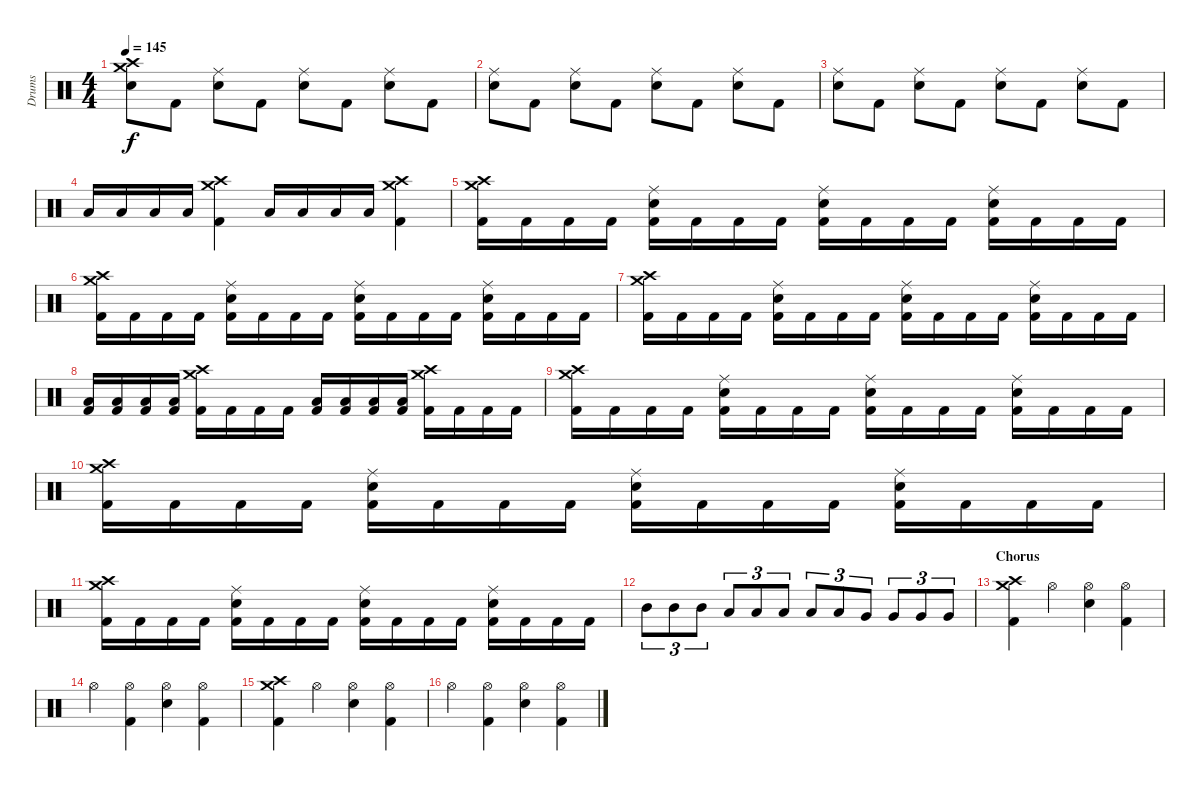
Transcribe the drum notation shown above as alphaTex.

\track ("Drums" "Drums") {instrument percussion}
\staff {score}
\articulation defaults
\ts (4 4)
\tempo 145
\clef neutral
\ks c
("Crash medium (hit)" "Snare (hit) 2" "Crash high (hit)").8{dy f} "Kick (hit) 2".8 ("Ride (middle)" "Snare (hit) 2").8 "Kick (hit) 2".8 ("Ride (middle)" "Snare (hit) 2").8 "Kick (hit) 2".8 ("Ride (middle)" "Snare (hit) 2").8 "Kick (hit) 2".8 |
("Ride (middle)" "Snare (hit) 2").8 "Kick (hit) 2".8 ("Ride (middle)" "Snare (hit) 2").8 "Kick (hit) 2".8 ("Ride (middle)" "Snare (hit) 2").8 "Kick (hit) 2".8 ("Ride (middle)" "Snare (hit) 2").8 "Kick (hit) 2".8 |
("Ride (middle)" "Snare (hit) 2").8 "Kick (hit) 2".8 ("Ride (middle)" "Snare (hit) 2").8 "Kick (hit) 2".8 ("Ride (middle)" "Snare (hit) 2").8 "Kick (hit) 2".8 ("Ride (middle)" "Snare (hit) 2").8 "Kick (hit) 2".8 |
"Low Tom (hit)".16 "Low Tom (hit)".16 "Low Tom (hit)".16 "Low Tom (hit)".16 ("Crash high (hit)" "Crash medium (hit)" "Kick (hit) 2").4 "Low Tom (hit)".16 "Low Tom (hit)".16 "Low Tom (hit)".16 "Low Tom (hit)".16 ("Crash medium (hit)" "Crash high (hit)" "Kick (hit) 2").4 |
("Crash high (hit)" "Crash medium (hit)" "Kick (hit) 2").16 "Kick (hit) 2".16 "Kick (hit) 2".16 "Kick (hit) 2".16 ("Ride (middle)" "Snare (hit) 2" "Kick (hit) 2").16 "Kick (hit) 2".16 "Kick (hit) 2".16 "Kick (hit) 2".16 ("Ride (middle)" "Snare (hit) 2" "Kick (hit) 2").16 "Kick (hit) 2".16 "Kick (hit) 2".16 "Kick (hit) 2".16 ("Ride (middle)" "Snare (hit) 2" "Kick (hit) 2").16 "Kick (hit) 2".16 "Kick (hit) 2".16 "Kick (hit) 2".16 |
("Crash high (hit)" "Crash medium (hit)" "Kick (hit) 2").16 "Kick (hit) 2".16 "Kick (hit) 2".16 "Kick (hit) 2".16 ("Ride (middle)" "Snare (hit) 2" "Kick (hit) 2").16 "Kick (hit) 2".16 "Kick (hit) 2".16 "Kick (hit) 2".16 ("Ride (middle)" "Snare (hit) 2" "Kick (hit) 2").16 "Kick (hit) 2".16 "Kick (hit) 2".16 "Kick (hit) 2".16 ("Ride (middle)" "Snare (hit) 2" "Kick (hit) 2").16 "Kick (hit) 2".16 "Kick (hit) 2".16 "Kick (hit) 2".16 |
("Crash high (hit)" "Crash medium (hit)" "Kick (hit) 2").16 "Kick (hit) 2".16 "Kick (hit) 2".16 "Kick (hit) 2".16 ("Ride (middle)" "Snare (hit) 2" "Kick (hit) 2").16 "Kick (hit) 2".16 "Kick (hit) 2".16 "Kick (hit) 2".16 ("Ride (middle)" "Snare (hit) 2" "Kick (hit) 2").16 "Kick (hit) 2".16 "Kick (hit) 2".16 "Kick (hit) 2".16 ("Ride (middle)" "Snare (hit) 2" "Kick (hit) 2").16 "Kick (hit) 2".16 "Kick (hit) 2".16 "Kick (hit) 2".16 |
("Low Tom (hit)" "Kick (hit) 2").16 ("Low Tom (hit)" "Kick (hit) 2").16 ("Low Tom (hit)" "Kick (hit) 2").16 ("Low Tom (hit)" "Kick (hit) 2").16 ("Crash high (hit)" "Crash medium (hit)" "Kick (hit) 2").16 "Kick (hit) 2".16 "Kick (hit) 2".16 "Kick (hit) 2".16 ("Low Tom (hit)" "Kick (hit) 2").16 ("Low Tom (hit)" "Kick (hit) 2").16 ("Low Tom (hit)" "Kick (hit) 2").16 ("Low Tom (hit)" "Kick (hit) 2").16 ("Crash medium (hit)" "Crash high (hit)" "Kick (hit) 2").16 "Kick (hit) 2".16 "Kick (hit) 2".16 "Kick (hit) 2".16 |
("Crash high (hit)" "Crash medium (hit)" "Kick (hit) 2").16 "Kick (hit) 2".16 "Kick (hit) 2".16 "Kick (hit) 2".16 ("Ride (middle)" "Snare (hit) 2" "Kick (hit) 2").16 "Kick (hit) 2".16 "Kick (hit) 2".16 "Kick (hit) 2".16 ("Ride (middle)" "Snare (hit) 2" "Kick (hit) 2").16 "Kick (hit) 2".16 "Kick (hit) 2".16 "Kick (hit) 2".16 ("Ride (middle)" "Snare (hit) 2" "Kick (hit) 2").16 "Kick (hit) 2".16 "Kick (hit) 2".16 "Kick (hit) 2".16 |
("Crash high (hit)" "Crash medium (hit)" "Kick (hit) 2").16 "Kick (hit) 2".16 "Kick (hit) 2".16 "Kick (hit) 2".16 ("Ride (middle)" "Snare (hit) 2" "Kick (hit) 2").16 "Kick (hit) 2".16 "Kick (hit) 2".16 "Kick (hit) 2".16 ("Ride (middle)" "Snare (hit) 2" "Kick (hit) 2").16 "Kick (hit) 2".16 "Kick (hit) 2".16 "Kick (hit) 2".16 ("Ride (middle)" "Snare (hit) 2" "Kick (hit) 2").16 "Kick (hit) 2".16 "Kick (hit) 2".16 "Kick (hit) 2".16 |
("Crash high (hit)" "Crash medium (hit)" "Kick (hit) 2").16 "Kick (hit) 2".16 "Kick (hit) 2".16 "Kick (hit) 2".16 ("Ride (middle)" "Snare (hit) 2" "Kick (hit) 2").16 "Kick (hit) 2".16 "Kick (hit) 2".16 "Kick (hit) 2".16 ("Ride (middle)" "Snare (hit) 2" "Kick (hit) 2").16 "Kick (hit) 2".16 "Kick (hit) 2".16 "Kick (hit) 2".16 ("Ride (middle)" "Snare (hit) 2" "Kick (hit) 2").16 "Kick (hit) 2".16 "Kick (hit) 2".16 "Kick (hit) 2".16 |
"Mid Tom (hit)".8{tu (3 2)} "Mid Tom (hit)".8{tu (3 2)} "Mid Tom (hit)".8{tu (3 2)} "Low Tom (hit)".8{tu (3 2)} "Low Tom (hit)".8{tu (3 2)} "Low Tom (hit)".8{tu (3 2)} "Low Tom (hit)".8{tu (3 2)} "Low Tom (hit)".8{tu (3 2)} "Very Low Tom (hit)".8{tu (3 2)} "Very Low Tom (hit)".8{tu (3 2)} "Very Low Tom (hit)".8{tu (3 2)} "Very Low Tom (hit)".8{tu (3 2)} |
\section ("" "Chorus")
("Crash medium (hit)" "Crash high (hit)" "Kick (hit) 2").4 "Hi-Hat (open)".4 ("Hi-Hat (open)" "Snare (hit) 2").4 ("Hi-Hat (open)" "Kick (hit) 2").4 |
"Hi-Hat (open)".4 ("Hi-Hat (open)" "Kick (hit) 2").4 ("Hi-Hat (open)" "Snare (hit) 2").4 ("Hi-Hat (open)" "Kick (hit) 2").4 |
("Crash medium (hit)" "Crash high (hit)" "Kick (hit) 2").4 "Hi-Hat (open)".4 ("Hi-Hat (open)" "Snare (hit) 2").4 ("Hi-Hat (open)" "Kick (hit) 2").4 |
"Hi-Hat (open)".4 ("Hi-Hat (open)" "Kick (hit) 2").4 ("Hi-Hat (open)" "Snare (hit) 2").4 ("Hi-Hat (open)" "Kick (hit) 2").4
